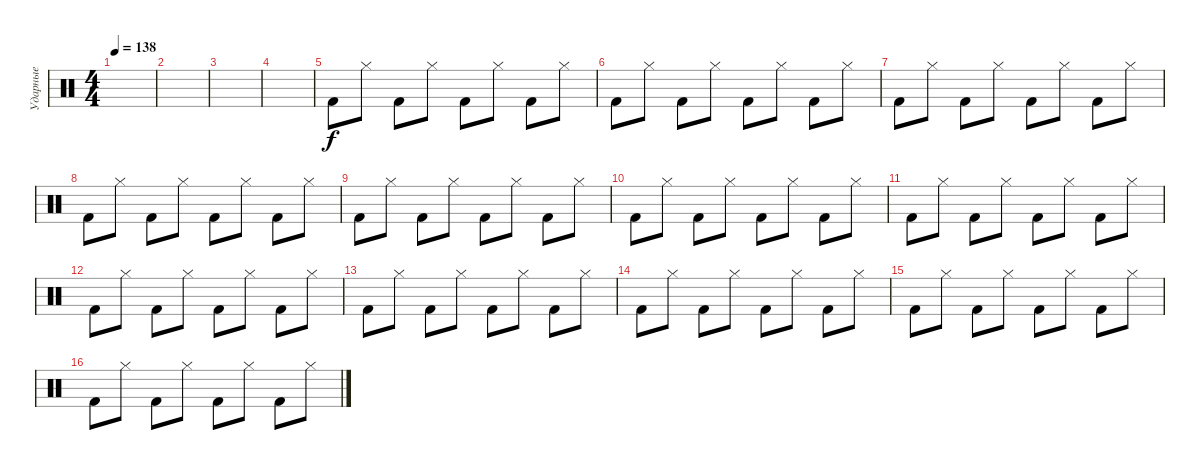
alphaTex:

\track ("Ударные" "Ударные") {instrument percussion}
\staff {score}
\articulation defaults
\ts (4 4)
\tempo 138
\clef neutral
\ks c
|
|
|
|
"Kick (hit) 2".8 "Hi-Hat (closed)".8 "Kick (hit) 2".8 "Hi-Hat (closed)".8 "Kick (hit) 2".8 "Hi-Hat (closed)".8 "Kick (hit) 2".8 "Hi-Hat (closed)".8 |
"Kick (hit) 2".8 "Hi-Hat (closed)".8 "Kick (hit) 2".8 "Hi-Hat (closed)".8 "Kick (hit) 2".8 "Hi-Hat (closed)".8 "Kick (hit) 2".8 "Hi-Hat (closed)".8 |
"Kick (hit) 2".8 "Hi-Hat (closed)".8 "Kick (hit) 2".8 "Hi-Hat (closed)".8 "Kick (hit) 2".8 "Hi-Hat (closed)".8 "Kick (hit) 2".8 "Hi-Hat (closed)".8 |
"Kick (hit) 2".8 "Hi-Hat (closed)".8 "Kick (hit) 2".8 "Hi-Hat (closed)".8 "Kick (hit) 2".8 "Hi-Hat (closed)".8 "Kick (hit) 2".8 "Hi-Hat (closed)".8 |
"Kick (hit) 2".8 "Hi-Hat (closed)".8 "Kick (hit) 2".8 "Hi-Hat (closed)".8 "Kick (hit) 2".8 "Hi-Hat (closed)".8 "Kick (hit) 2".8 "Hi-Hat (closed)".8 |
"Kick (hit) 2".8 "Hi-Hat (closed)".8 "Kick (hit) 2".8 "Hi-Hat (closed)".8 "Kick (hit) 2".8 "Hi-Hat (closed)".8 "Kick (hit) 2".8 "Hi-Hat (closed)".8 |
"Kick (hit) 2".8 "Hi-Hat (closed)".8 "Kick (hit) 2".8 "Hi-Hat (closed)".8 "Kick (hit) 2".8 "Hi-Hat (closed)".8 "Kick (hit) 2".8 "Hi-Hat (closed)".8 |
"Kick (hit) 2".8 "Hi-Hat (closed)".8 "Kick (hit) 2".8 "Hi-Hat (closed)".8 "Kick (hit) 2".8 "Hi-Hat (closed)".8 "Kick (hit) 2".8 "Hi-Hat (closed)".8 |
"Kick (hit) 2".8 "Hi-Hat (closed)".8 "Kick (hit) 2".8 "Hi-Hat (closed)".8 "Kick (hit) 2".8 "Hi-Hat (closed)".8 "Kick (hit) 2".8 "Hi-Hat (closed)".8 |
"Kick (hit) 2".8 "Hi-Hat (closed)".8 "Kick (hit) 2".8 "Hi-Hat (closed)".8 "Kick (hit) 2".8 "Hi-Hat (closed)".8 "Kick (hit) 2".8 "Hi-Hat (closed)".8 |
"Kick (hit) 2".8 "Hi-Hat (closed)".8 "Kick (hit) 2".8 "Hi-Hat (closed)".8 "Kick (hit) 2".8 "Hi-Hat (closed)".8 "Kick (hit) 2".8 "Hi-Hat (closed)".8 |
"Kick (hit) 2".8 "Hi-Hat (closed)".8 "Kick (hit) 2".8 "Hi-Hat (closed)".8 "Kick (hit) 2".8 "Hi-Hat (closed)".8 "Kick (hit) 2".8 "Hi-Hat (closed)".8
